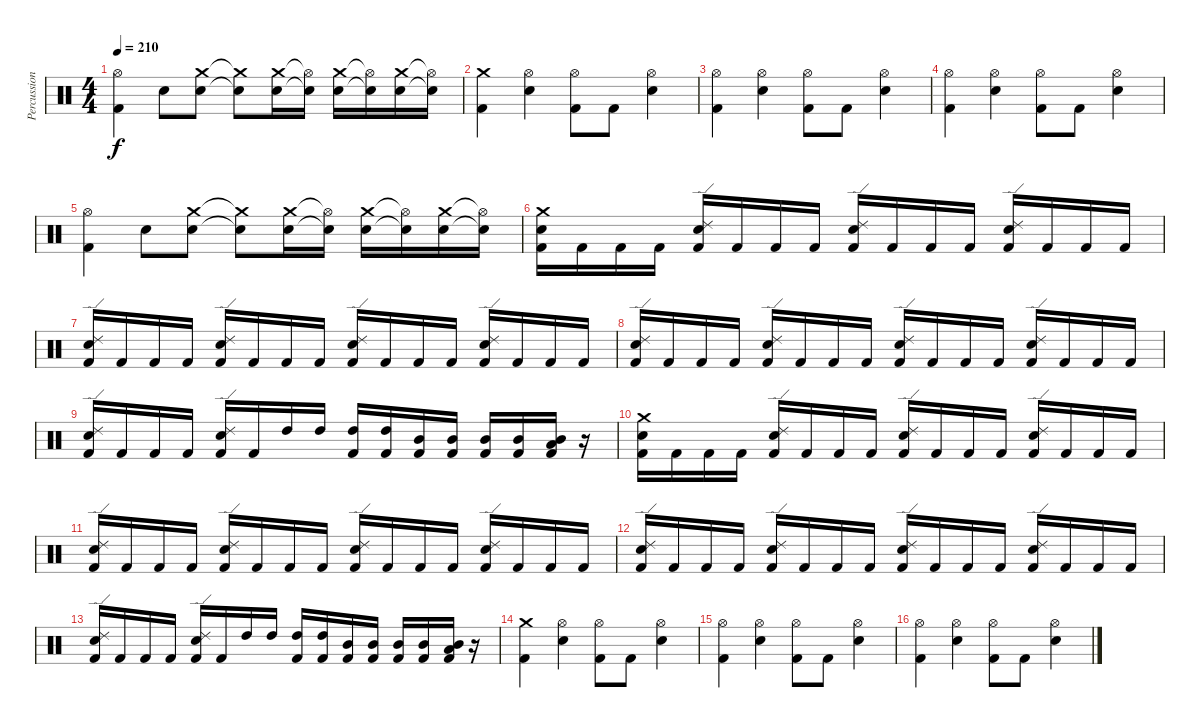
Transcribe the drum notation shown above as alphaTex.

\track ("Percussion" "Percussion") {instrument percussion}
\staff {score}
\articulation defaults
\ts (4 4)
\tempo 210
\clef neutral
\ks c
("Hi-Hat (open)" "Kick (hit) 2").4{dy f} "Electric Snare (hit)".8 ("Crash medium (hit)" "Electric Snare (hit)").8 ("Crash medium (hit)"{t} "Electric Snare (hit)"{t}).8 ("Crash medium (hit)" "Electric Snare (hit)").16 ("Hi-Hat (open)"{t} "Electric Snare (hit)"{t}).16 ("Crash medium (hit)" "Electric Snare (hit)").16 ("Hi-Hat (open)"{t} "Electric Snare (hit)"{t}).16 ("Crash medium (hit)" "Electric Snare (hit)").16 ("Hi-Hat (open)"{t} "Electric Snare (hit)"{t}).16 |
("Crash medium (hit)" "Kick (hit) 2").4 ("Hi-Hat (open)" "Electric Snare (hit)").4 ("Hi-Hat (open)" "Kick (hit) 2").8 "Kick (hit) 2".8 ("Hi-Hat (open)" "Electric Snare (hit)").4 |
("Hi-Hat (open)" "Kick (hit) 2").4 ("Hi-Hat (open)" "Electric Snare (hit)").4 ("Hi-Hat (open)" "Kick (hit) 2").8 "Kick (hit) 2".8 ("Hi-Hat (open)" "Electric Snare (hit)").4 |
("Hi-Hat (open)" "Kick (hit) 2").4 ("Hi-Hat (open)" "Electric Snare (hit)").4 ("Hi-Hat (open)" "Kick (hit) 2").8 "Kick (hit) 2".8 ("Hi-Hat (open)" "Electric Snare (hit)").4 |
("Hi-Hat (open)" "Kick (hit) 2").4 "Electric Snare (hit)".8 ("Crash medium (hit)" "Electric Snare (hit)").8 ("Crash medium (hit)"{t} "Electric Snare (hit)"{t}).8 ("Crash medium (hit)" "Electric Snare (hit)").16 ("Hi-Hat (open)"{t} "Electric Snare (hit)"{t}).16 ("Crash medium (hit)" "Electric Snare (hit)").16 ("Hi-Hat (open)"{t} "Electric Snare (hit)"{t}).16 ("Crash medium (hit)" "Electric Snare (hit)").16 ("Hi-Hat (open)"{t} "Electric Snare (hit)"{t}).16 |
("Crash medium (hit)" "Electric Snare (hit)" "Kick (hit) 2").16 "Kick (hit) 2".16 "Kick (hit) 2".16 "Kick (hit) 2".16 ("Ride (edge) 2" "Electric Snare (hit)" "Kick (hit) 2").16 "Kick (hit) 2".16 "Kick (hit) 2".16 "Kick (hit) 2".16 ("Ride (edge) 2" "Electric Snare (hit)" "Kick (hit) 2").16 "Kick (hit) 2".16 "Kick (hit) 2".16 "Kick (hit) 2".16 ("Ride (edge) 2" "Electric Snare (hit)" "Kick (hit) 2").16 "Kick (hit) 2".16 "Kick (hit) 2".16 "Kick (hit) 2".16 |
("Ride (edge) 2" "Electric Snare (hit)" "Kick (hit) 2").16 "Kick (hit) 2".16 "Kick (hit) 2".16 "Kick (hit) 2".16 ("Ride (edge) 2" "Electric Snare (hit)" "Kick (hit) 2").16 "Kick (hit) 2".16 "Kick (hit) 2".16 "Kick (hit) 2".16 ("Ride (edge) 2" "Electric Snare (hit)" "Kick (hit) 2").16 "Kick (hit) 2".16 "Kick (hit) 2".16 "Kick (hit) 2".16 ("Ride (edge) 2" "Electric Snare (hit)" "Kick (hit) 2").16 "Kick (hit) 2".16 "Kick (hit) 2".16 "Kick (hit) 2".16 |
("Ride (edge) 2" "Electric Snare (hit)" "Kick (hit) 2").16 "Kick (hit) 2".16 "Kick (hit) 2".16 "Kick (hit) 2".16 ("Ride (edge) 2" "Electric Snare (hit)" "Kick (hit) 2").16 "Kick (hit) 2".16 "Kick (hit) 2".16 "Kick (hit) 2".16 ("Ride (edge) 2" "Electric Snare (hit)" "Kick (hit) 2").16 "Kick (hit) 2".16 "Kick (hit) 2".16 "Kick (hit) 2".16 ("Ride (edge) 2" "Electric Snare (hit)" "Kick (hit) 2").16 "Kick (hit) 2".16 "Kick (hit) 2".16 "Kick (hit) 2".16 |
("Ride (edge) 2" "Electric Snare (hit)" "Kick (hit) 2").16 "Kick (hit) 2".16 "Kick (hit) 2".16 "Kick (hit) 2".16 ("Ride (edge) 2" "Electric Snare (hit)" "Kick (hit) 2").16 "Kick (hit) 2".16 "High Tom (hit)".16 "High Tom (hit)".16 ("High Tom (hit)" "Kick (hit) 2").16 ("High Tom (hit)" "Kick (hit) 2").16 ("Mid Tom (hit)" "Kick (hit) 2").16 ("Mid Tom (hit)" "Kick (hit) 2").16 ("Mid Tom (hit)" "Kick (hit) 2").16 ("Mid Tom (hit)" "Kick (hit) 2").16 ("Mid Tom (hit)" "Low Tom (hit)" "Kick (hit) 2").16 r.16 |
("Crash medium (hit)" "Electric Snare (hit)" "Kick (hit) 2").16 "Kick (hit) 2".16 "Kick (hit) 2".16 "Kick (hit) 2".16 ("Ride (edge) 2" "Electric Snare (hit)" "Kick (hit) 2").16 "Kick (hit) 2".16 "Kick (hit) 2".16 "Kick (hit) 2".16 ("Ride (edge) 2" "Electric Snare (hit)" "Kick (hit) 2").16 "Kick (hit) 2".16 "Kick (hit) 2".16 "Kick (hit) 2".16 ("Ride (edge) 2" "Electric Snare (hit)" "Kick (hit) 2").16 "Kick (hit) 2".16 "Kick (hit) 2".16 "Kick (hit) 2".16 |
("Ride (edge) 2" "Electric Snare (hit)" "Kick (hit) 2").16 "Kick (hit) 2".16 "Kick (hit) 2".16 "Kick (hit) 2".16 ("Ride (edge) 2" "Electric Snare (hit)" "Kick (hit) 2").16 "Kick (hit) 2".16 "Kick (hit) 2".16 "Kick (hit) 2".16 ("Ride (edge) 2" "Electric Snare (hit)" "Kick (hit) 2").16 "Kick (hit) 2".16 "Kick (hit) 2".16 "Kick (hit) 2".16 ("Ride (edge) 2" "Electric Snare (hit)" "Kick (hit) 2").16 "Kick (hit) 2".16 "Kick (hit) 2".16 "Kick (hit) 2".16 |
("Ride (edge) 2" "Electric Snare (hit)" "Kick (hit) 2").16 "Kick (hit) 2".16 "Kick (hit) 2".16 "Kick (hit) 2".16 ("Ride (edge) 2" "Electric Snare (hit)" "Kick (hit) 2").16 "Kick (hit) 2".16 "Kick (hit) 2".16 "Kick (hit) 2".16 ("Ride (edge) 2" "Electric Snare (hit)" "Kick (hit) 2").16 "Kick (hit) 2".16 "Kick (hit) 2".16 "Kick (hit) 2".16 ("Ride (edge) 2" "Electric Snare (hit)" "Kick (hit) 2").16 "Kick (hit) 2".16 "Kick (hit) 2".16 "Kick (hit) 2".16 |
("Ride (edge) 2" "Electric Snare (hit)" "Kick (hit) 2").16 "Kick (hit) 2".16 "Kick (hit) 2".16 "Kick (hit) 2".16 ("Ride (edge) 2" "Electric Snare (hit)" "Kick (hit) 2").16 "Kick (hit) 2".16 "High Tom (hit)".16 "High Tom (hit)".16 ("High Tom (hit)" "Kick (hit) 2").16 ("High Tom (hit)" "Kick (hit) 2").16 ("Mid Tom (hit)" "Kick (hit) 2").16 ("Mid Tom (hit)" "Kick (hit) 2").16 ("Mid Tom (hit)" "Kick (hit) 2").16 ("Mid Tom (hit)" "Kick (hit) 2").16 ("Mid Tom (hit)" "Low Tom (hit)" "Kick (hit) 2").16 r.16 |
("Crash medium (hit)" "Kick (hit) 2").4 ("Hi-Hat (open)" "Electric Snare (hit)").4 ("Hi-Hat (open)" "Kick (hit) 2").8 "Kick (hit) 2".8 ("Hi-Hat (open)" "Electric Snare (hit)").4 |
("Hi-Hat (open)" "Kick (hit) 2").4 ("Hi-Hat (open)" "Electric Snare (hit)").4 ("Hi-Hat (open)" "Kick (hit) 2").8 "Kick (hit) 2".8 ("Hi-Hat (open)" "Electric Snare (hit)").4 |
("Hi-Hat (open)" "Kick (hit) 2").4 ("Hi-Hat (open)" "Electric Snare (hit)").4 ("Hi-Hat (open)" "Kick (hit) 2").8 "Kick (hit) 2".8 ("Hi-Hat (open)" "Electric Snare (hit)").4
